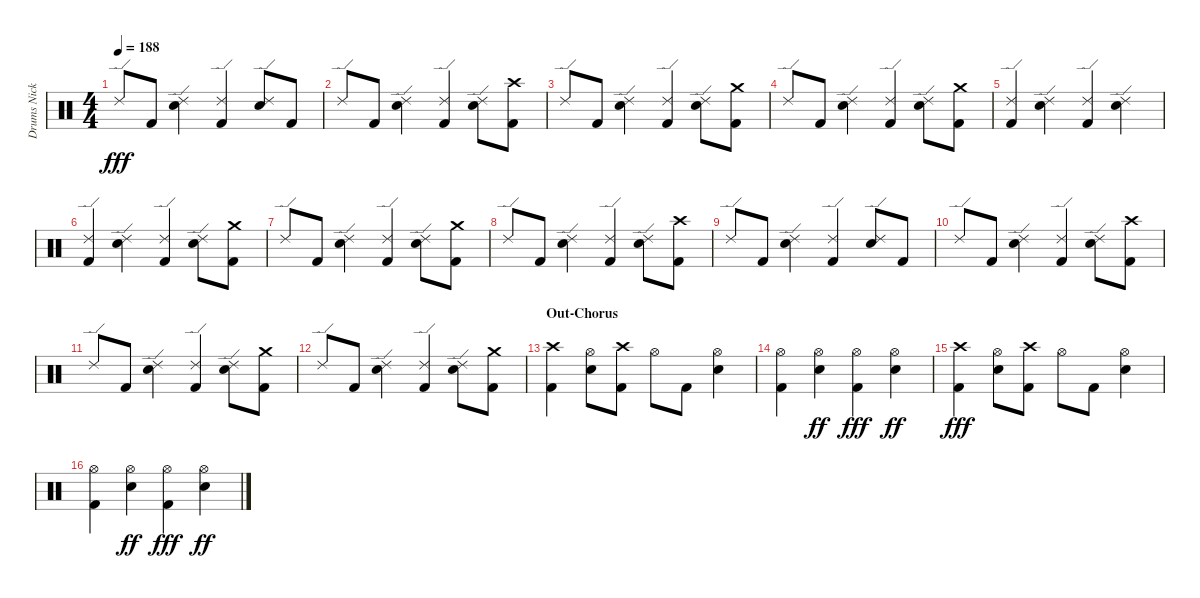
\track ("Drums Nicko McBrain" "Drums Nick") {instrument percussion}
\staff {score}
\articulation defaults
\ts (4 4)
\tempo 188
\clef neutral
\ks c "Ride (edge) 2".8{dy fff} "Kick (hit) 2".8
("Ride (edge) 2" "Electric Snare (hit)").4 ("Ride (edge) 2" "Kick (hit) 2").4 ("Ride (edge) 2" "Electric Snare (hit)").8 "Kick (hit) 2".8 |
"Ride (edge) 2".8 "Kick (hit) 2".8 ("Ride (edge) 2" "Electric Snare (hit)").4 ("Ride (edge) 2" "Kick (hit) 2").4 ("Ride (edge) 2" "Electric Snare (hit)").8 ("Crash high (hit)" "Kick (hit) 2").8 |
"Ride (edge) 2".8 "Kick (hit) 2".8 ("Ride (edge) 2" "Electric Snare (hit)").4 ("Ride (edge) 2" "Kick (hit) 2").4 ("Ride (edge) 2" "Electric Snare (hit)").8 ("Crash medium (hit)" "Kick (hit) 2").8 |
"Ride (edge) 2".8 "Kick (hit) 2".8 ("Ride (edge) 2" "Electric Snare (hit)").4 ("Ride (edge) 2" "Kick (hit) 2").4 ("Ride (edge) 2" "Electric Snare (hit)").8 ("Crash medium (hit)" "Kick (hit) 2").8 |
("Ride (edge) 2" "Kick (hit) 2").4 ("Ride (edge) 2" "Electric Snare (hit)").4 ("Ride (edge) 2" "Kick (hit) 2").4 ("Ride (edge) 2" "Electric Snare (hit)").4 |
("Ride (edge) 2" "Kick (hit) 2").4 ("Ride (edge) 2" "Electric Snare (hit)").4 ("Ride (edge) 2" "Kick (hit) 2").4 ("Ride (edge) 2" "Electric Snare (hit)").8 ("Crash medium (hit)" "Kick (hit) 2").8 |
"Ride (edge) 2".8 "Kick (hit) 2".8 ("Ride (edge) 2" "Electric Snare (hit)").4 ("Ride (edge) 2" "Kick (hit) 2").4 ("Ride (edge) 2" "Electric Snare (hit)").8 ("Crash medium (hit)" "Kick (hit) 2").8 |
"Ride (edge) 2".8 "Kick (hit) 2".8 ("Ride (edge) 2" "Electric Snare (hit)").4 ("Ride (edge) 2" "Kick (hit) 2").4 ("Ride (edge) 2" "Electric Snare (hit)").8 ("Crash high (hit)" "Kick (hit) 2").8 |
"Ride (edge) 2".8 "Kick (hit) 2".8 ("Ride (edge) 2" "Electric Snare (hit)").4 ("Ride (edge) 2" "Kick (hit) 2").4 ("Ride (edge) 2" "Electric Snare (hit)").8 "Kick (hit) 2".8 |
"Ride (edge) 2".8 "Kick (hit) 2".8 ("Ride (edge) 2" "Electric Snare (hit)").4 ("Ride (edge) 2" "Kick (hit) 2").4 ("Ride (edge) 2" "Electric Snare (hit)").8 ("Crash high (hit)" "Kick (hit) 2").8 |
"Ride (edge) 2".8 "Kick (hit) 2".8 ("Ride (edge) 2" "Electric Snare (hit)").4 ("Ride (edge) 2" "Kick (hit) 2").4 ("Ride (edge) 2" "Electric Snare (hit)").8 ("Crash medium (hit)" "Kick (hit) 2").8 |
"Ride (edge) 2".8 "Kick (hit) 2".8 ("Ride (edge) 2" "Electric Snare (hit)").4 ("Ride (edge) 2" "Kick (hit) 2").4 ("Ride (edge) 2" "Electric Snare (hit)").8 ("Crash medium (hit)" "Kick (hit) 2").8 |
\section ("" "Out-Chorus")
("Crash high (hit)" "Kick (hit) 2").4 ("Hi-Hat (open)" "Electric Snare (hit)").8 ("Crash high (hit)" "Kick (hit) 2").8 "Hi-Hat (open)".8 "Kick (hit) 2".8 ("Hi-Hat (open)" "Electric Snare (hit)").4 |
("Hi-Hat (open)" "Kick (hit) 2").4 ("Hi-Hat (open)" "Electric Snare (hit)").4{dy ff} ("Hi-Hat (open)" "Kick (hit) 2").4{dy fff} ("Hi-Hat (open)" "Electric Snare (hit)").4{dy ff} |
("Crash high (hit)" "Kick (hit) 2").4{dy fff} ("Hi-Hat (open)" "Electric Snare (hit)").8 ("Crash high (hit)" "Kick (hit) 2").8 "Hi-Hat (open)".8 "Kick (hit) 2".8 ("Hi-Hat (open)" "Electric Snare (hit)").4 |
("Hi-Hat (open)" "Kick (hit) 2").4 ("Hi-Hat (open)" "Electric Snare (hit)").4{dy ff} ("Hi-Hat (open)" "Kick (hit) 2").4{dy fff} ("Hi-Hat (open)" "Electric Snare (hit)").4{dy ff}
